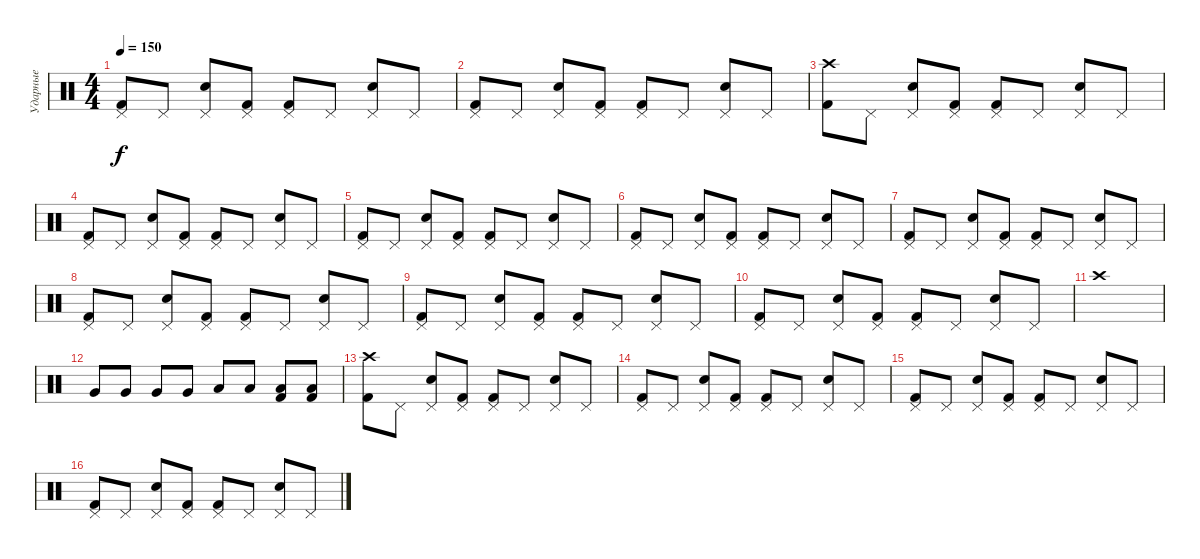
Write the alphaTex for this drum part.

\track ("Ударные" "Ударные") {instrument percussion}
\staff {score}
\articulation defaults
\ts (4 4)
\tempo 150
\clef neutral
\ks c
("Pedal Hi-Hat (hit)" "Kick (hit) 2").8{dy f} "Pedal Hi-Hat (hit)".8 ("Pedal Hi-Hat (hit)" "Snare (hit) 2").8 ("Pedal Hi-Hat (hit)" "Kick (hit) 2").8 ("Pedal Hi-Hat (hit)" "Kick (hit) 2").8 "Pedal Hi-Hat (hit)".8 ("Pedal Hi-Hat (hit)" "Snare (hit) 2").8 "Pedal Hi-Hat (hit)".8 |
("Pedal Hi-Hat (hit)" "Kick (hit) 2").8 "Pedal Hi-Hat (hit)".8 ("Pedal Hi-Hat (hit)" "Snare (hit) 2").8 ("Pedal Hi-Hat (hit)" "Kick (hit) 2").8 ("Pedal Hi-Hat (hit)" "Kick (hit) 2").8 "Pedal Hi-Hat (hit)".8 ("Pedal Hi-Hat (hit)" "Snare (hit) 2").8 "Pedal Hi-Hat (hit)".8 |
("Crash high (hit)" "Kick (hit) 2").8 "Pedal Hi-Hat (hit)".8 ("Pedal Hi-Hat (hit)" "Snare (hit) 2").8 ("Pedal Hi-Hat (hit)" "Kick (hit) 2").8 ("Pedal Hi-Hat (hit)" "Kick (hit) 2").8 "Pedal Hi-Hat (hit)".8 ("Pedal Hi-Hat (hit)" "Snare (hit) 2").8 "Pedal Hi-Hat (hit)".8 |
("Pedal Hi-Hat (hit)" "Kick (hit) 2").8 "Pedal Hi-Hat (hit)".8 ("Pedal Hi-Hat (hit)" "Snare (hit) 2").8 ("Pedal Hi-Hat (hit)" "Kick (hit) 2").8 ("Pedal Hi-Hat (hit)" "Kick (hit) 2").8 "Pedal Hi-Hat (hit)".8 ("Pedal Hi-Hat (hit)" "Snare (hit) 2").8 "Pedal Hi-Hat (hit)".8 |
("Pedal Hi-Hat (hit)" "Kick (hit) 2").8 "Pedal Hi-Hat (hit)".8 ("Pedal Hi-Hat (hit)" "Snare (hit) 2").8 ("Pedal Hi-Hat (hit)" "Kick (hit) 2").8 ("Pedal Hi-Hat (hit)" "Kick (hit) 2").8 "Pedal Hi-Hat (hit)".8 ("Pedal Hi-Hat (hit)" "Snare (hit) 2").8 "Pedal Hi-Hat (hit)".8 |
("Pedal Hi-Hat (hit)" "Kick (hit) 2").8 "Pedal Hi-Hat (hit)".8 ("Pedal Hi-Hat (hit)" "Snare (hit) 2").8 ("Pedal Hi-Hat (hit)" "Kick (hit) 2").8 ("Pedal Hi-Hat (hit)" "Kick (hit) 2").8 "Pedal Hi-Hat (hit)".8 ("Pedal Hi-Hat (hit)" "Snare (hit) 2").8 "Pedal Hi-Hat (hit)".8 |
("Pedal Hi-Hat (hit)" "Kick (hit) 2").8 "Pedal Hi-Hat (hit)".8 ("Pedal Hi-Hat (hit)" "Snare (hit) 2").8 ("Pedal Hi-Hat (hit)" "Kick (hit) 2").8 ("Pedal Hi-Hat (hit)" "Kick (hit) 2").8 "Pedal Hi-Hat (hit)".8 ("Pedal Hi-Hat (hit)" "Snare (hit) 2").8 "Pedal Hi-Hat (hit)".8 |
("Pedal Hi-Hat (hit)" "Kick (hit) 2").8 "Pedal Hi-Hat (hit)".8 ("Pedal Hi-Hat (hit)" "Snare (hit) 2").8 ("Pedal Hi-Hat (hit)" "Kick (hit) 2").8 ("Pedal Hi-Hat (hit)" "Kick (hit) 2").8 "Pedal Hi-Hat (hit)".8 ("Pedal Hi-Hat (hit)" "Snare (hit) 2").8 "Pedal Hi-Hat (hit)".8 |
("Pedal Hi-Hat (hit)" "Kick (hit) 2").8 "Pedal Hi-Hat (hit)".8 ("Pedal Hi-Hat (hit)" "Snare (hit) 2").8 ("Pedal Hi-Hat (hit)" "Kick (hit) 2").8 ("Pedal Hi-Hat (hit)" "Kick (hit) 2").8 "Pedal Hi-Hat (hit)".8 ("Pedal Hi-Hat (hit)" "Snare (hit) 2").8 "Pedal Hi-Hat (hit)".8 |
("Pedal Hi-Hat (hit)" "Kick (hit) 2").8 "Pedal Hi-Hat (hit)".8 ("Pedal Hi-Hat (hit)" "Snare (hit) 2").8 ("Pedal Hi-Hat (hit)" "Kick (hit) 2").8 ("Pedal Hi-Hat (hit)" "Kick (hit) 2").8 "Pedal Hi-Hat (hit)".8 ("Pedal Hi-Hat (hit)" "Snare (hit) 2").8 "Pedal Hi-Hat (hit)".8 |
"Crash high (hit)".1 |
"Very Low Tom (hit)".8 "Very Low Tom (hit)".8 "Very Low Tom (hit)".8 "Very Low Tom (hit)".8 "Low Floor Tom (hit)".8 "Low Floor Tom (hit)".8 ("Low Floor Tom (hit)" "Kick (hit) 2").8 ("Low Floor Tom (hit)" "Kick (hit) 2").8 |
("Crash high (hit)" "Kick (hit) 2").8 "Pedal Hi-Hat (hit)".8 ("Pedal Hi-Hat (hit)" "Snare (hit) 2").8 ("Pedal Hi-Hat (hit)" "Kick (hit) 2").8 ("Pedal Hi-Hat (hit)" "Kick (hit) 2").8 "Pedal Hi-Hat (hit)".8 ("Pedal Hi-Hat (hit)" "Snare (hit) 2").8 "Pedal Hi-Hat (hit)".8 |
("Pedal Hi-Hat (hit)" "Kick (hit) 2").8 "Pedal Hi-Hat (hit)".8 ("Pedal Hi-Hat (hit)" "Snare (hit) 2").8 ("Pedal Hi-Hat (hit)" "Kick (hit) 2").8 ("Pedal Hi-Hat (hit)" "Kick (hit) 2").8 "Pedal Hi-Hat (hit)".8 ("Pedal Hi-Hat (hit)" "Snare (hit) 2").8 "Pedal Hi-Hat (hit)".8 |
("Pedal Hi-Hat (hit)" "Kick (hit) 2").8 "Pedal Hi-Hat (hit)".8 ("Pedal Hi-Hat (hit)" "Snare (hit) 2").8 ("Pedal Hi-Hat (hit)" "Kick (hit) 2").8 ("Pedal Hi-Hat (hit)" "Kick (hit) 2").8 "Pedal Hi-Hat (hit)".8 ("Pedal Hi-Hat (hit)" "Snare (hit) 2").8 "Pedal Hi-Hat (hit)".8 |
("Pedal Hi-Hat (hit)" "Kick (hit) 2").8 "Pedal Hi-Hat (hit)".8 ("Pedal Hi-Hat (hit)" "Snare (hit) 2").8 ("Pedal Hi-Hat (hit)" "Kick (hit) 2").8 ("Pedal Hi-Hat (hit)" "Kick (hit) 2").8 "Pedal Hi-Hat (hit)".8 ("Pedal Hi-Hat (hit)" "Snare (hit) 2").8 "Pedal Hi-Hat (hit)".8
